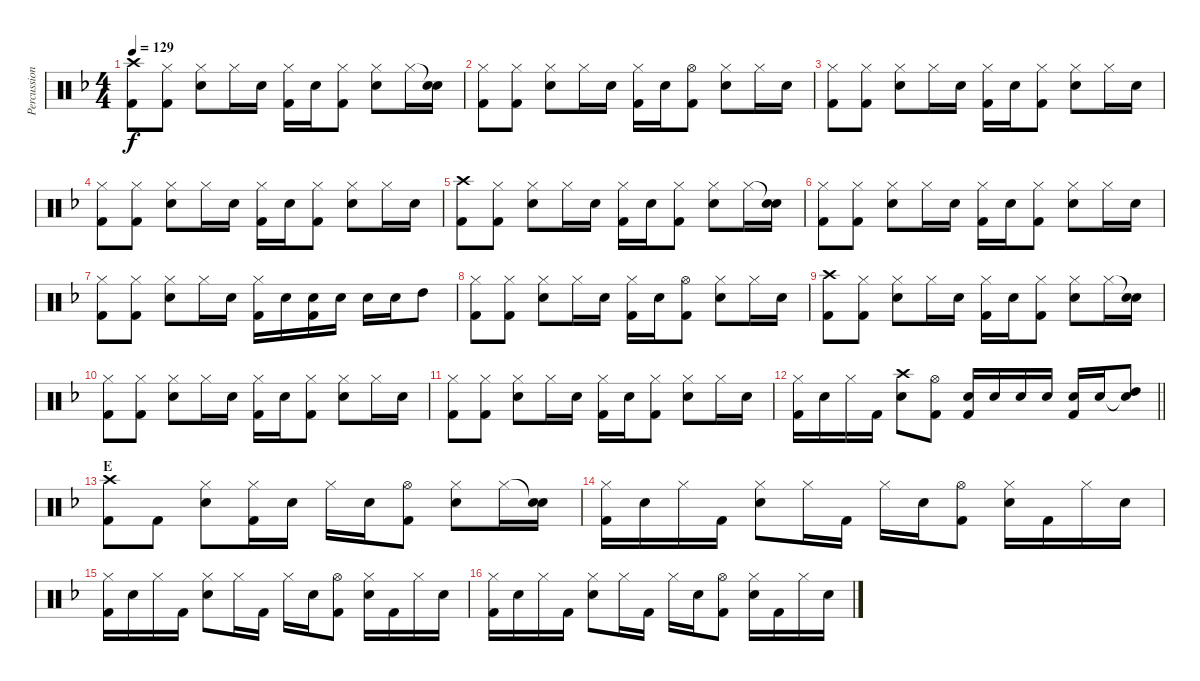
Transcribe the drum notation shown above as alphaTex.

\track ("Percussion" "Percussion") {instrument percussion}
\staff {score}
\articulation defaults
\ts (4 4)
\tempo 129
\clef neutral
\ks f
("Crash high (hit)" "Kick (hit) 2").8{dy f} ("Hi-Hat (closed)" "Kick (hit) 2").8 ("Hi-Hat (closed)" "Electric Snare (hit)").8 "Hi-Hat (closed)".16 "Electric Snare (hit)".16 ("Hi-Hat (closed)" "Kick (hit) 2").16 "Electric Snare (hit)".16 ("Hi-Hat (closed)" "Kick (hit) 2").8 ("Hi-Hat (closed)" "Electric Snare (hit)").8 "Hi-Hat (closed)".16 ("Snare (hit)"{t} "Electric Snare (hit)").16 |
("Hi-Hat (closed)" "Kick (hit) 2").8 ("Hi-Hat (closed)" "Kick (hit) 2").8 ("Hi-Hat (closed)" "Electric Snare (hit)").8 "Hi-Hat (closed)".16 "Electric Snare (hit)".16 ("Hi-Hat (closed)" "Kick (hit) 2").16 "Electric Snare (hit)".16 ("Hi-Hat (open)" "Kick (hit) 2").8 ("Hi-Hat (closed)" "Electric Snare (hit)").8 "Hi-Hat (closed)".16 "Electric Snare (hit)".16 |
("Hi-Hat (closed)" "Kick (hit) 2").8 ("Hi-Hat (closed)" "Kick (hit) 2").8 ("Hi-Hat (closed)" "Electric Snare (hit)").8 "Hi-Hat (closed)".16 "Electric Snare (hit)".16 ("Hi-Hat (closed)" "Kick (hit) 2").16 "Electric Snare (hit)".16 ("Hi-Hat (closed)" "Kick (hit) 2").8 ("Hi-Hat (closed)" "Electric Snare (hit)").8 "Hi-Hat (closed)".16 "Electric Snare (hit)".16 |
("Hi-Hat (closed)" "Kick (hit) 2").8 ("Hi-Hat (closed)" "Kick (hit) 2").8 ("Hi-Hat (closed)" "Electric Snare (hit)").8 "Hi-Hat (closed)".16 "Electric Snare (hit)".16 ("Hi-Hat (closed)" "Kick (hit) 2").16 "Electric Snare (hit)".16 ("Hi-Hat (closed)" "Kick (hit) 2").8 ("Hi-Hat (closed)" "Electric Snare (hit)").8 "Hi-Hat (closed)".16 "Electric Snare (hit)".16 |
("Crash high (hit)" "Kick (hit) 2").8 ("Hi-Hat (closed)" "Kick (hit) 2").8 ("Hi-Hat (closed)" "Electric Snare (hit)").8 "Hi-Hat (closed)".16 "Electric Snare (hit)".16 ("Hi-Hat (closed)" "Kick (hit) 2").16 "Electric Snare (hit)".16 ("Hi-Hat (closed)" "Kick (hit) 2").8 ("Hi-Hat (closed)" "Electric Snare (hit)").8 "Hi-Hat (closed)".16 ("Snare (hit)"{t} "Electric Snare (hit)").16 |
("Hi-Hat (closed)" "Kick (hit) 2").8 ("Hi-Hat (closed)" "Kick (hit) 2").8 ("Hi-Hat (closed)" "Electric Snare (hit)").8 "Hi-Hat (closed)".16 "Electric Snare (hit)".16 ("Hi-Hat (closed)" "Kick (hit) 2").16 "Electric Snare (hit)".16 ("Hi-Hat (closed)" "Kick (hit) 2").8 ("Hi-Hat (closed)" "Electric Snare (hit)").8 "Hi-Hat (closed)".16 "Electric Snare (hit)".16 |
("Hi-Hat (closed)" "Kick (hit) 2").8 ("Hi-Hat (closed)" "Kick (hit) 2").8 ("Hi-Hat (closed)" "Electric Snare (hit)").8 "Hi-Hat (closed)".16 "Electric Snare (hit)".16 ("Hi-Hat (closed)" "Kick (hit) 2").16 "Electric Snare (hit)".16 ("Electric Snare (hit)" "Kick (hit) 2").16 "Electric Snare (hit)".16 "Electric Snare (hit)".16 "Electric Snare (hit)".16 "High Tom (hit)".8 |
("Hi-Hat (closed)" "Kick (hit) 2").8 ("Hi-Hat (closed)" "Kick (hit) 2").8 ("Hi-Hat (closed)" "Electric Snare (hit)").8 "Hi-Hat (closed)".16 "Electric Snare (hit)".16 ("Hi-Hat (closed)" "Kick (hit) 2").16 "Electric Snare (hit)".16 ("Hi-Hat (open)" "Kick (hit) 2").8 ("Hi-Hat (closed)" "Electric Snare (hit)").8 "Hi-Hat (closed)".16 "Electric Snare (hit)".16 |
("Crash high (hit)" "Kick (hit) 2").8 ("Hi-Hat (closed)" "Kick (hit) 2").8 ("Hi-Hat (closed)" "Electric Snare (hit)").8 "Hi-Hat (closed)".16 "Electric Snare (hit)".16 ("Hi-Hat (closed)" "Kick (hit) 2").16 "Electric Snare (hit)".16 ("Hi-Hat (closed)" "Kick (hit) 2").8 ("Hi-Hat (closed)" "Electric Snare (hit)").8 "Hi-Hat (closed)".16 ("Snare (hit)"{t} "Electric Snare (hit)").16 |
("Hi-Hat (closed)" "Kick (hit) 2").8 ("Hi-Hat (closed)" "Kick (hit) 2").8 ("Hi-Hat (closed)" "Electric Snare (hit)").8 "Hi-Hat (closed)".16 "Electric Snare (hit)".16 ("Hi-Hat (closed)" "Kick (hit) 2").16 "Electric Snare (hit)".16 ("Hi-Hat (closed)" "Kick (hit) 2").8 ("Hi-Hat (closed)" "Electric Snare (hit)").8 "Hi-Hat (closed)".16 "Electric Snare (hit)".16 |
("Hi-Hat (closed)" "Kick (hit) 2").8 ("Hi-Hat (closed)" "Kick (hit) 2").8 ("Hi-Hat (closed)" "Electric Snare (hit)").8 "Hi-Hat (closed)".16 "Electric Snare (hit)".16 ("Hi-Hat (closed)" "Kick (hit) 2").16 "Electric Snare (hit)".16 ("Hi-Hat (closed)" "Kick (hit) 2").8 ("Hi-Hat (closed)" "Electric Snare (hit)").8 "Hi-Hat (closed)".16 "Electric Snare (hit)".16 |
\barLineRight lightlight
("Hi-Hat (closed)" "Kick (hit) 2").16 "Electric Snare (hit)".16 "Hi-Hat (closed)".16 "Kick (hit) 2".16 ("Crash high (hit)" "Electric Snare (hit)").8 ("Hi-Hat (open)" "Kick (hit) 2").8 ("Electric Snare (hit)" "Kick (hit) 2").16 "Electric Snare (hit)".16 "Electric Snare (hit)".16 "Electric Snare (hit)".16 ("Electric Snare (hit)" "Kick (hit) 2").16 "Electric Snare (hit)".16 ("Snare (hit)"{t} "High Tom (hit)").8 |
\section ("" "E")
("Crash high (hit)" "Kick (hit) 2").8 "Kick (hit) 2".8 ("Hi-Hat (closed)" "Electric Snare (hit)").8 ("Hi-Hat (closed)" "Kick (hit) 2").16 "Electric Snare (hit)".16 "Hi-Hat (closed)".16 "Electric Snare (hit)".16 ("Hi-Hat (open)" "Kick (hit) 2").8 ("Hi-Hat (closed)" "Electric Snare (hit)").8 "Hi-Hat (closed)".16 ("Snare (hit)"{t} "Electric Snare (hit)").16 |
("Hi-Hat (closed)" "Kick (hit) 2").16 "Electric Snare (hit)".16 "Hi-Hat (closed)".16 "Kick (hit) 2".16 ("Hi-Hat (closed)" "Electric Snare (hit)").8 "Hi-Hat (closed)".16 "Kick (hit) 2".16 "Hi-Hat (closed)".16 "Electric Snare (hit)".16 ("Hi-Hat (open)" "Kick (hit) 2").8 ("Hi-Hat (closed)" "Electric Snare (hit)").16 "Kick (hit) 2".16 "Hi-Hat (closed)".16 "Electric Snare (hit)".16 |
("Hi-Hat (closed)" "Kick (hit) 2").16 "Electric Snare (hit)".16 "Hi-Hat (closed)".16 "Kick (hit) 2".16 ("Hi-Hat (closed)" "Electric Snare (hit)").8 "Hi-Hat (closed)".16 "Kick (hit) 2".16 "Hi-Hat (closed)".16 "Electric Snare (hit)".16 ("Hi-Hat (open)" "Kick (hit) 2").8 ("Hi-Hat (closed)" "Electric Snare (hit)").16 "Kick (hit) 2".16 "Hi-Hat (closed)".16 "Electric Snare (hit)".16 |
("Hi-Hat (closed)" "Kick (hit) 2").16 "Electric Snare (hit)".16 "Hi-Hat (closed)".16 "Kick (hit) 2".16 ("Hi-Hat (closed)" "Electric Snare (hit)").8 "Hi-Hat (closed)".16 "Kick (hit) 2".16 "Hi-Hat (closed)".16 "Electric Snare (hit)".16 ("Hi-Hat (open)" "Kick (hit) 2").8 ("Hi-Hat (closed)" "Electric Snare (hit)").16 "Kick (hit) 2".16 "Hi-Hat (closed)".16 "Electric Snare (hit)".16
